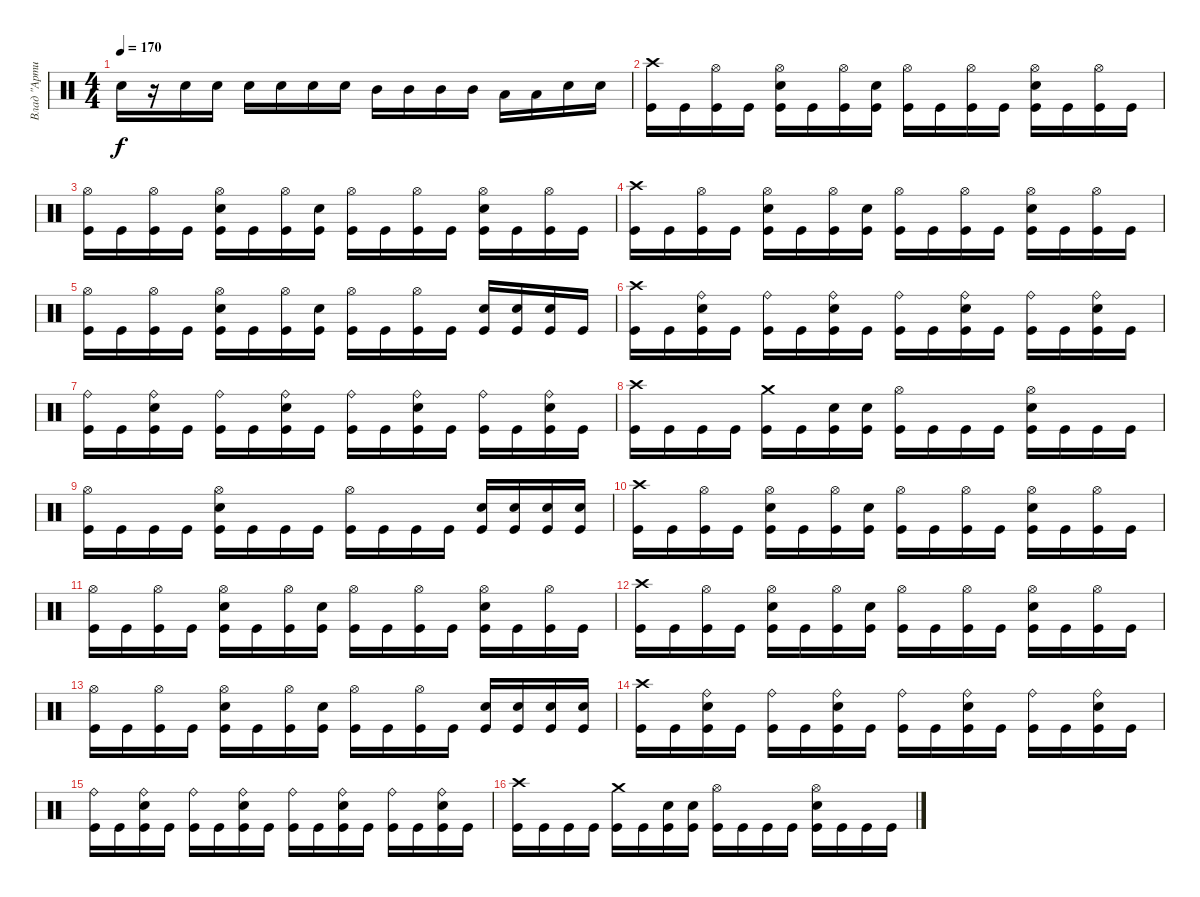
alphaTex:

\track ("Влад \"Артист\"" "Влад \"Арти") {instrument percussion}
\staff {score}
\articulation defaults
\ts (4 4)
\tempo 170
\clef neutral
\ks c "Snare (hit) 2".16{dy f}
r.16 "Snare (hit) 2".16 "Snare (hit) 2".16 "Snare (hit) 2".16 "Snare (hit) 2".16 "Snare (hit) 2".16 "Snare (hit) 2".16 "Mid Tom (hit)".16 "Mid Tom (hit)".16 "Mid Tom (hit)".16 "Mid Tom (hit)".16 "Low Tom (hit)".16 "Low Tom (hit)".16 "Snare (hit) 2".16 "Snare (hit) 2".16 |
("Crash high (hit)" "Kick (hit)").16 "Kick (hit)".16 ("Hi-Hat (open)" "Kick (hit)").16 "Kick (hit)".16 ("Snare (hit) 2" "Hi-Hat (open)" "Kick (hit)").16 "Kick (hit)".16 ("Hi-Hat (open)" "Kick (hit)").16 ("Kick (hit)" "Snare (hit) 2").16 ("Hi-Hat (open)" "Kick (hit)").16 "Kick (hit)".16 ("Hi-Hat (open)" "Kick (hit)").16 "Kick (hit)".16 ("Hi-Hat (open)" "Kick (hit)" "Snare (hit) 2").16 "Kick (hit)".16 ("Hi-Hat (open)" "Kick (hit)").16 "Kick (hit)".16 |
("Hi-Hat (open)" "Kick (hit)").16 "Kick (hit)".16 ("Hi-Hat (open)" "Kick (hit)").16 "Kick (hit)".16 ("Snare (hit) 2" "Hi-Hat (open)" "Kick (hit)").16 "Kick (hit)".16 ("Hi-Hat (open)" "Kick (hit)").16 ("Snare (hit) 2" "Kick (hit)").16 ("Kick (hit)" "Hi-Hat (open)").16 "Kick (hit)".16 ("Hi-Hat (open)" "Kick (hit)").16 "Kick (hit)".16 ("Hi-Hat (open)" "Kick (hit)" "Snare (hit) 2").16 "Kick (hit)".16 ("Hi-Hat (open)" "Kick (hit)").16 "Kick (hit)".16 |
("Crash high (hit)" "Kick (hit)").16 "Kick (hit)".16 ("Hi-Hat (open)" "Kick (hit)").16 "Kick (hit)".16 ("Snare (hit) 2" "Hi-Hat (open)" "Kick (hit)").16 "Kick (hit)".16 ("Hi-Hat (open)" "Kick (hit)").16 ("Kick (hit)" "Snare (hit) 2").16 ("Hi-Hat (open)" "Kick (hit)").16 "Kick (hit)".16 ("Hi-Hat (open)" "Kick (hit)").16 "Kick (hit)".16 ("Hi-Hat (open)" "Kick (hit)" "Snare (hit) 2").16 "Kick (hit)".16 ("Hi-Hat (open)" "Kick (hit)").16 "Kick (hit)".16 |
("Hi-Hat (open)" "Kick (hit)").16 "Kick (hit)".16 ("Hi-Hat (open)" "Kick (hit)").16 "Kick (hit)".16 ("Snare (hit) 2" "Hi-Hat (open)" "Kick (hit)").16 "Kick (hit)".16 ("Hi-Hat (open)" "Kick (hit)").16 ("Snare (hit) 2" "Kick (hit)").16 ("Kick (hit)" "Hi-Hat (open)").16 "Kick (hit)".16 ("Hi-Hat (open)" "Kick (hit)").16 "Kick (hit)".16 ("Kick (hit)" "Snare (hit) 2").16 ("Snare (hit) 2" "Kick (hit)").16 ("Snare (hit) 2" "Kick (hit)").16 "Kick (hit)".16 |
("Crash high (hit)" "Kick (hit)").16 "Kick (hit)".16 ("Ride (bell)" "Snare (hit) 2" "Kick (hit)").16 "Kick (hit)".16 ("Ride (bell)" "Kick (hit)").16 "Kick (hit)".16 ("Ride (bell)" "Snare (hit) 2" "Kick (hit)").16 "Kick (hit)".16 ("Ride (bell)" "Kick (hit)").16 "Kick (hit)".16 ("Ride (bell)" "Snare (hit) 2" "Kick (hit)").16 "Kick (hit)".16 ("Ride (bell)" "Kick (hit)").16 "Kick (hit)".16 ("Ride (bell)" "Snare (hit) 2" "Kick (hit)").16 "Kick (hit)".16 |
("Ride (bell)" "Kick (hit)").16 "Kick (hit)".16 ("Ride (bell)" "Snare (hit) 2" "Kick (hit)").16 "Kick (hit)".16 ("Ride (bell)" "Kick (hit)").16 "Kick (hit)".16 ("Snare (hit) 2" "Ride (bell)" "Kick (hit)").16 "Kick (hit)".16 ("Ride (bell)" "Kick (hit)").16 "Kick (hit)".16 ("Ride (bell)" "Snare (hit) 2" "Kick (hit)").16 "Kick (hit)".16 ("Ride (bell)" "Kick (hit)").16 "Kick (hit)".16 ("Ride (bell)" "Snare (hit) 2" "Kick (hit)").16 "Kick (hit)".16 |
("Crash high (hit)" "Kick (hit)").16 "Kick (hit)".16 "Kick (hit)".16 "Kick (hit)".16 ("Crash medium (hit)" "Kick (hit)").16 "Kick (hit)".16 ("Snare (hit) 2" "Kick (hit)").16 ("Snare (hit) 2" "Kick (hit)").16 ("Hi-Hat (open)" "Kick (hit)").16 "Kick (hit)".16 "Kick (hit)".16 "Kick (hit)".16 ("Hi-Hat (open)" "Snare (hit) 2" "Kick (hit)").16 "Kick (hit)".16 "Kick (hit)".16 "Kick (hit)".16 |
("Hi-Hat (open)" "Kick (hit)").16 "Kick (hit)".16 "Kick (hit)".16 "Kick (hit)".16 ("Snare (hit) 2" "Hi-Hat (open)" "Kick (hit)").16 "Kick (hit)".16 "Kick (hit)".16 "Kick (hit)".16 ("Hi-Hat (open)" "Kick (hit)").16 "Kick (hit)".16 "Kick (hit)".16 "Kick (hit)".16 ("Snare (hit) 2" "Kick (hit)").16 ("Snare (hit) 2" "Kick (hit)").16 ("Snare (hit) 2" "Kick (hit)").16 ("Snare (hit) 2" "Kick (hit)").16 |
("Crash high (hit)" "Kick (hit)").16 "Kick (hit)".16 ("Hi-Hat (open)" "Kick (hit)").16 "Kick (hit)".16 ("Snare (hit) 2" "Hi-Hat (open)" "Kick (hit)").16 "Kick (hit)".16 ("Hi-Hat (open)" "Kick (hit)").16 ("Kick (hit)" "Snare (hit) 2").16 ("Hi-Hat (open)" "Kick (hit)").16 "Kick (hit)".16 ("Hi-Hat (open)" "Kick (hit)").16 "Kick (hit)".16 ("Hi-Hat (open)" "Kick (hit)" "Snare (hit) 2").16 "Kick (hit)".16 ("Hi-Hat (open)" "Kick (hit)").16 "Kick (hit)".16 |
("Hi-Hat (open)" "Kick (hit)").16 "Kick (hit)".16 ("Hi-Hat (open)" "Kick (hit)").16 "Kick (hit)".16 ("Snare (hit) 2" "Hi-Hat (open)" "Kick (hit)").16 "Kick (hit)".16 ("Hi-Hat (open)" "Kick (hit)").16 ("Snare (hit) 2" "Kick (hit)").16 ("Kick (hit)" "Hi-Hat (open)").16 "Kick (hit)".16 ("Hi-Hat (open)" "Kick (hit)").16 "Kick (hit)".16 ("Hi-Hat (open)" "Kick (hit)" "Snare (hit) 2").16 "Kick (hit)".16 ("Hi-Hat (open)" "Kick (hit)").16 "Kick (hit)".16 |
("Crash high (hit)" "Kick (hit)").16 "Kick (hit)".16 ("Hi-Hat (open)" "Kick (hit)").16 "Kick (hit)".16 ("Snare (hit) 2" "Hi-Hat (open)" "Kick (hit)").16 "Kick (hit)".16 ("Hi-Hat (open)" "Kick (hit)").16 ("Kick (hit)" "Snare (hit) 2").16 ("Hi-Hat (open)" "Kick (hit)").16 "Kick (hit)".16 ("Hi-Hat (open)" "Kick (hit)").16 "Kick (hit)".16 ("Hi-Hat (open)" "Kick (hit)" "Snare (hit) 2").16 "Kick (hit)".16 ("Hi-Hat (open)" "Kick (hit)").16 "Kick (hit)".16 |
("Hi-Hat (open)" "Kick (hit)").16 "Kick (hit)".16 ("Hi-Hat (open)" "Kick (hit)").16 "Kick (hit)".16 ("Snare (hit) 2" "Hi-Hat (open)" "Kick (hit)").16 "Kick (hit)".16 ("Hi-Hat (open)" "Kick (hit)").16 ("Snare (hit) 2" "Kick (hit)").16 ("Kick (hit)" "Hi-Hat (open)").16 "Kick (hit)".16 ("Hi-Hat (open)" "Kick (hit)").16 "Kick (hit)".16 ("Kick (hit)" "Snare (hit) 2").16 ("Snare (hit) 2" "Kick (hit)").16 ("Snare (hit) 2" "Kick (hit)").16 ("Snare (hit) 2" "Kick (hit)").16 |
("Crash high (hit)" "Kick (hit)").16 "Kick (hit)".16 ("Ride (bell)" "Snare (hit) 2" "Kick (hit)").16 "Kick (hit)".16 ("Ride (bell)" "Kick (hit)").16 "Kick (hit)".16 ("Ride (bell)" "Snare (hit) 2" "Kick (hit)").16 "Kick (hit)".16 ("Ride (bell)" "Kick (hit)").16 "Kick (hit)".16 ("Ride (bell)" "Snare (hit) 2" "Kick (hit)").16 "Kick (hit)".16 ("Ride (bell)" "Kick (hit)").16 "Kick (hit)".16 ("Ride (bell)" "Snare (hit) 2" "Kick (hit)").16 "Kick (hit)".16 |
("Ride (bell)" "Kick (hit)").16 "Kick (hit)".16 ("Ride (bell)" "Snare (hit) 2" "Kick (hit)").16 "Kick (hit)".16 ("Ride (bell)" "Kick (hit)").16 "Kick (hit)".16 ("Snare (hit) 2" "Ride (bell)" "Kick (hit)").16 "Kick (hit)".16 ("Ride (bell)" "Kick (hit)").16 "Kick (hit)".16 ("Ride (bell)" "Snare (hit) 2" "Kick (hit)").16 "Kick (hit)".16 ("Ride (bell)" "Kick (hit)").16 "Kick (hit)".16 ("Ride (bell)" "Snare (hit) 2" "Kick (hit)").16 "Kick (hit)".16 |
("Crash high (hit)" "Kick (hit)").16 "Kick (hit)".16 "Kick (hit)".16 "Kick (hit)".16 ("Crash medium (hit)" "Kick (hit)").16 "Kick (hit)".16 ("Snare (hit) 2" "Kick (hit)").16 ("Snare (hit) 2" "Kick (hit)").16 ("Hi-Hat (open)" "Kick (hit)").16 "Kick (hit)".16 "Kick (hit)".16 "Kick (hit)".16 ("Hi-Hat (open)" "Snare (hit) 2" "Kick (hit)").16 "Kick (hit)".16 "Kick (hit)".16 "Kick (hit)".16
